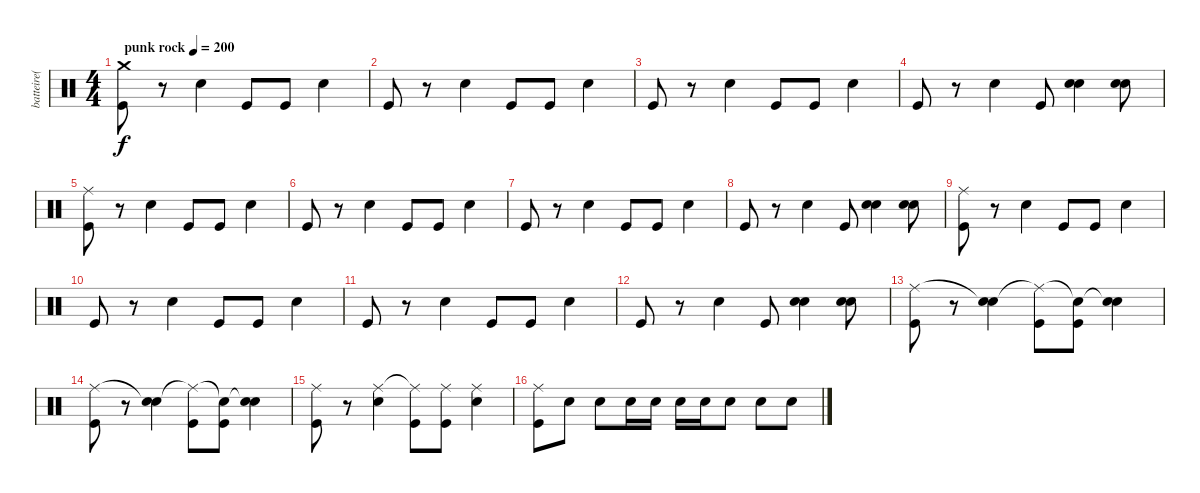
\track ("batteire( Danny Alaro )" "batteire( ") {instrument percussion}
\staff {score}
\articulation defaults
\ts (4 4)
\tempo (200 "punk rock")
\clef neutral
\ks c
("Crash medium (hit)" "Kick (hit)").8{dy f} r.8 "Snare (hit) 2".4 "Kick (hit)".8 "Kick (hit)".8 "Snare (hit) 2".4 |
"Kick (hit)".8 r.8 "Snare (hit) 2".4 "Kick (hit)".8 "Kick (hit)".8 "Snare (hit) 2".4 |
"Kick (hit)".8 r.8 "Snare (hit) 2".4 "Kick (hit)".8 "Kick (hit)".8 "Snare (hit) 2".4 |
"Kick (hit)".8 r.8 "Snare (hit) 2".4 "Kick (hit)".8 ("Snare (hit) 2" "Snare (hit) 2").4 ("Snare (hit) 2" "Snare (hit) 2").8 |
("Ride (middle)" "Kick (hit)").8 r.8 "Snare (hit) 2".4 "Kick (hit)".8 "Kick (hit)".8 "Snare (hit) 2".4 |
"Kick (hit)".8 r.8 "Snare (hit) 2".4 "Kick (hit)".8 "Kick (hit)".8 "Snare (hit) 2".4 |
"Kick (hit)".8 r.8 "Snare (hit) 2".4 "Kick (hit)".8 "Kick (hit)".8 "Snare (hit) 2".4 |
"Kick (hit)".8 r.8 "Snare (hit) 2".4 "Kick (hit)".8 ("Snare (hit) 2" "Snare (hit) 2").4 ("Snare (hit) 2" "Snare (hit) 2").8 |
("Ride (middle)" "Kick (hit)").8 r.8 "Snare (hit) 2".4 "Kick (hit)".8 "Kick (hit)".8 "Snare (hit) 2".4 |
"Kick (hit)".8 r.8 "Snare (hit) 2".4 "Kick (hit)".8 "Kick (hit)".8 "Snare (hit) 2".4 |
"Kick (hit)".8 r.8 "Snare (hit) 2".4 "Kick (hit)".8 "Kick (hit)".8 "Snare (hit) 2".4 |
"Kick (hit)".8 r.8 "Snare (hit) 2".4 "Kick (hit)".8 ("Snare (hit) 2" "Snare (hit) 2").4 ("Snare (hit) 2" "Snare (hit) 2").8 |
("Ride (middle)" "Kick (hit)").8 r.8 ("Snare (hit)"{t} "Snare (hit) 2").4 ("Ride (middle)"{t} "Kick (hit)").8 ("Snare (hit)"{t} "Kick (hit)").8 ("Snare (hit)"{t} "Snare (hit) 2").4 |
("Ride (middle)" "Kick (hit)").8 r.8 ("Snare (hit)"{t} "Snare (hit) 2").4 ("Ride (middle)"{t} "Kick (hit)").8 ("Snare (hit)"{t} "Kick (hit)").8 ("Snare (hit)"{t} "Snare (hit) 2").4 |
("Ride (middle)" "Kick (hit)").8 r.8 ("Ride (middle)" "Snare (hit) 2").4 ("Ride (middle)"{t} "Kick (hit)").8 ("Ride (middle)" "Kick (hit)").8 ("Ride (middle)" "Snare (hit) 2").4 |
("Ride (middle)" "Kick (hit)").8 "Snare (hit) 2".8 "Snare (hit) 2".8 "Snare (hit) 2".16 "Snare (hit) 2".16 "Snare (hit) 2".16 "Snare (hit) 2".16 "Snare (hit) 2".8 "Snare (hit) 2".8 "Snare (hit) 2".8
